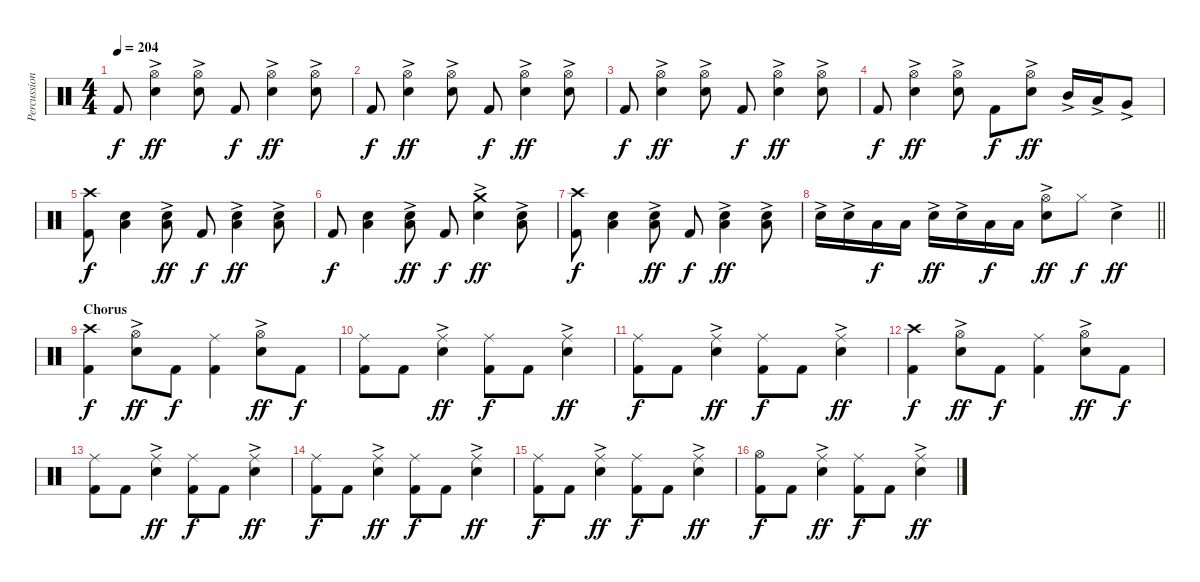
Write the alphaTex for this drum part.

\track ("Percussion" "Percussion") {instrument percussion}
\staff {score}
\articulation defaults
\ts (4 4)
\tempo 204
\clef neutral
\ks c "Kick (hit) 2".8{dy f}
("Hi-Hat (open)" "Electric Snare (hit)"{ac}).4{dy ff} ("Hi-Hat (open)" "Electric Snare (hit)"{ac}).8 "Kick (hit) 2".8{dy f} ("Hi-Hat (open)" "Electric Snare (hit)"{ac}).4{dy ff} ("Hi-Hat (open)" "Electric Snare (hit)"{ac}).8 |
"Kick (hit) 2".8{dy f} ("Hi-Hat (open)" "Electric Snare (hit)"{ac}).4{dy ff} ("Hi-Hat (open)" "Electric Snare (hit)"{ac}).8 "Kick (hit) 2".8{dy f} ("Hi-Hat (open)" "Electric Snare (hit)"{ac}).4{dy ff} ("Hi-Hat (open)" "Electric Snare (hit)"{ac}).8 |
"Kick (hit) 2".8{dy f} ("Hi-Hat (open)" "Electric Snare (hit)"{ac}).4{dy ff} ("Hi-Hat (open)" "Electric Snare (hit)"{ac}).8 "Kick (hit) 2".8{dy f} ("Hi-Hat (open)" "Electric Snare (hit)"{ac}).4{dy ff} ("Hi-Hat (open)" "Electric Snare (hit)"{ac}).8 |
"Kick (hit) 2".8{dy f} ("Hi-Hat (open)" "Electric Snare (hit)"{ac}).4{dy ff} ("Hi-Hat (open)" "Electric Snare (hit)"{ac}).8 "Kick (hit) 2".8{dy f} ("Hi-Hat (open)" "Electric Snare (hit)"{ac}).8{dy ff} "Mid Tom (hit)"{ac}.16 "Low Tom (hit)"{ac}.16 "Very Low Tom (hit)"{ac}.8 |
("Crash high (hit)" "Kick (hit) 2").8{dy f} ("Low Tom (hit)" "Electric Snare (hit)").4 ("Low Tom (hit)" "Electric Snare (hit)"{ac}).8{dy ff} "Kick (hit) 2".8{dy f} ("Low Tom (hit)" "Electric Snare (hit)"{ac}).4{dy ff} ("Low Tom (hit)" "Electric Snare (hit)"{ac}).8 |
"Kick (hit) 2".8{dy f} ("Low Tom (hit)" "Electric Snare (hit)").4 ("Low Tom (hit)" "Electric Snare (hit)"{ac}).8{dy ff} "Kick (hit) 2".8{dy f} ("Crash medium (hit)" "Electric Snare (hit)"{ac}).4{dy ff} ("Low Tom (hit)" "Electric Snare (hit)"{ac}).8 |
("Crash high (hit)" "Kick (hit) 2").8{dy f} ("Low Tom (hit)" "Electric Snare (hit)").4 ("Low Tom (hit)" "Electric Snare (hit)"{ac}).8{dy ff} "Kick (hit) 2".8{dy f} ("Low Tom (hit)" "Electric Snare (hit)"{ac}).4{dy ff} ("Low Tom (hit)" "Electric Snare (hit)"{ac}).8 |
\barLineRight lightlight "Electric Snare (hit)"{ac}.16 "Electric Snare (hit)"{ac}.16 "Low Tom (hit)".16{dy f} "Low Tom (hit)".16 "Electric Snare (hit)"{ac}.16{dy ff} "Electric Snare (hit)"{ac}.16 "Low Tom (hit)".16{dy f} "Low Tom (hit)".16
("Hi-Hat (open)" "Electric Snare (hit)"{ac}).8{dy ff} "Hi-Hat (closed)".8{dy f} "Electric Snare (hit)"{ac}.4{dy ff} |
\section ("" "Chorus")
("Crash high (hit)" "Kick (hit) 2").4{dy f} ("Hi-Hat (open)" "Electric Snare (hit)"{ac}).8{dy ff} "Kick (hit) 2".8{dy f} ("Ride (middle)" "Kick (hit) 2").4 ("Hi-Hat (open)" "Electric Snare (hit)"{ac}).8{dy ff} "Kick (hit) 2".8{dy f} |
("Ride (middle)" "Kick (hit) 2").8 "Kick (hit) 2".8 ("Ride (middle)" "Electric Snare (hit)"{ac}).4{dy ff} ("Ride (middle)" "Kick (hit) 2").8{dy f} "Kick (hit) 2".8 ("Ride (middle)" "Electric Snare (hit)"{ac}).4{dy ff} |
("Ride (middle)" "Kick (hit) 2").8{dy f} "Kick (hit) 2".8 ("Ride (middle)" "Electric Snare (hit)"{ac}).4{dy ff} ("Ride (middle)" "Kick (hit) 2").8{dy f} "Kick (hit) 2".8 ("Ride (middle)" "Electric Snare (hit)"{ac}).4{dy ff} |
("Crash high (hit)" "Kick (hit) 2").4{dy f} ("Hi-Hat (open)" "Electric Snare (hit)"{ac}).8{dy ff} "Kick (hit) 2".8{dy f} ("Ride (middle)" "Kick (hit) 2").4 ("Hi-Hat (open)" "Electric Snare (hit)"{ac}).8{dy ff} "Kick (hit) 2".8{dy f} |
("Ride (middle)" "Kick (hit) 2").8 "Kick (hit) 2".8 ("Ride (middle)" "Electric Snare (hit)"{ac}).4{dy ff} ("Ride (middle)" "Kick (hit) 2").8{dy f} "Kick (hit) 2".8 ("Ride (middle)" "Electric Snare (hit)"{ac}).4{dy ff} |
("Ride (middle)" "Kick (hit) 2").8{dy f} "Kick (hit) 2".8 ("Ride (middle)" "Electric Snare (hit)"{ac}).4{dy ff} ("Ride (middle)" "Kick (hit) 2").8{dy f} "Kick (hit) 2".8 ("Ride (middle)" "Electric Snare (hit)"{ac}).4{dy ff} |
("Ride (middle)" "Kick (hit) 2").8{dy f} "Kick (hit) 2".8 ("Ride (middle)" "Electric Snare (hit)"{ac}).4{dy ff} ("Ride (middle)" "Kick (hit) 2").8{dy f} "Kick (hit) 2".8 ("Ride (middle)" "Electric Snare (hit)"{ac}).4{dy ff} |
("Hi-Hat (open)" "Kick (hit) 2").8{dy f} "Kick (hit) 2".8 ("Ride (middle)" "Electric Snare (hit)"{ac}).4{dy ff} ("Ride (middle)" "Kick (hit) 2").8{dy f} "Kick (hit) 2".8 ("Ride (middle)" "Electric Snare (hit)"{ac}).4{dy ff}
